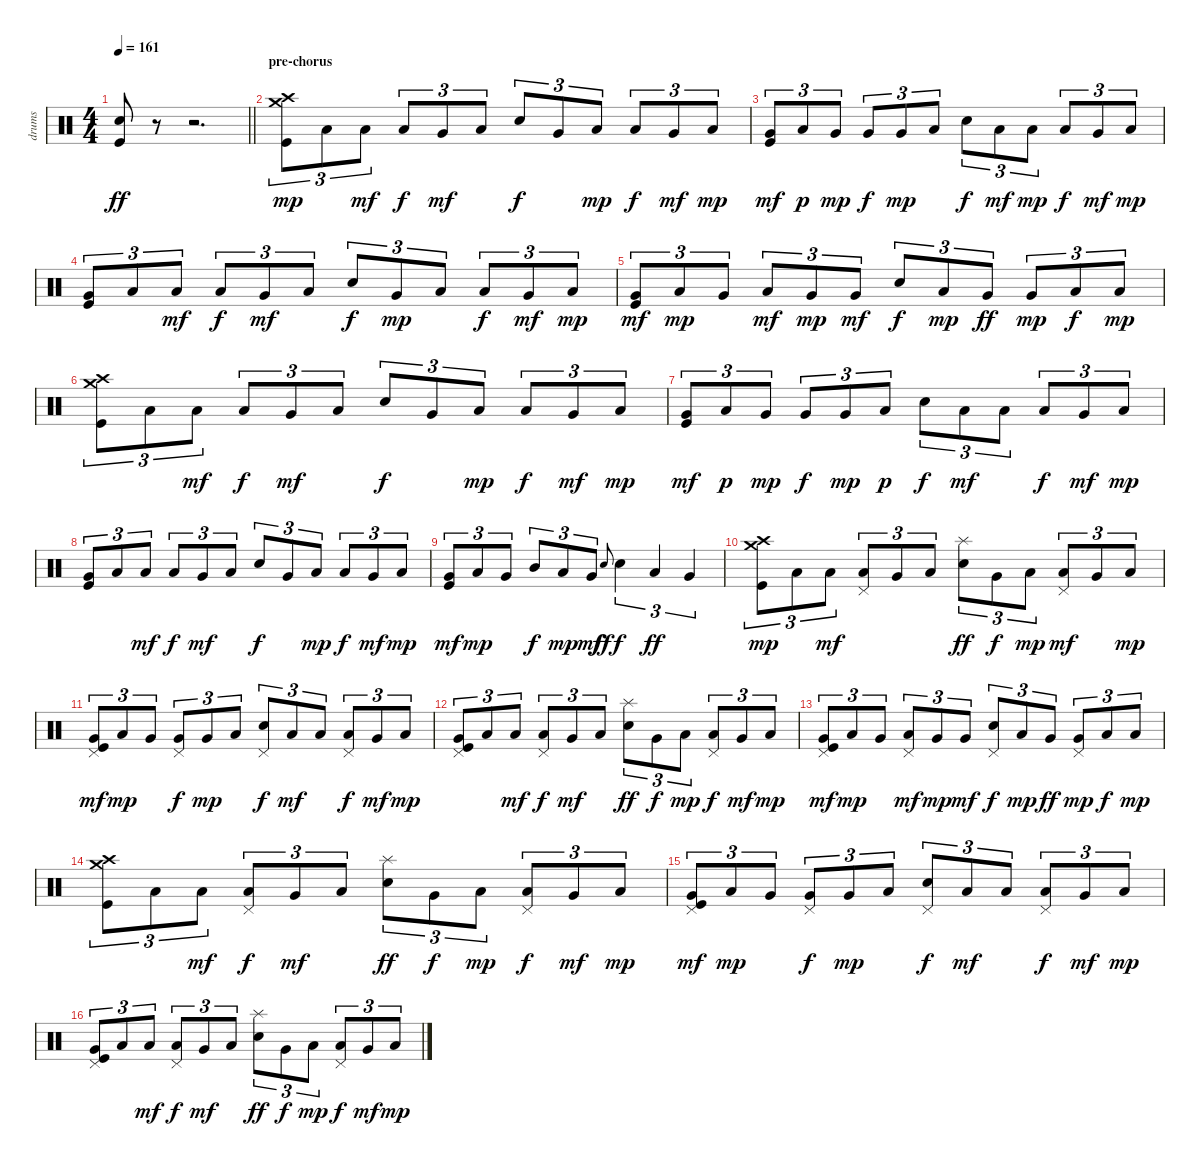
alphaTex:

\track ("drums" "drums") {instrument percussion}
\staff {score}
\articulation defaults
\ts (4 4)
\tempo 161
\clef neutral
\barLineRight lightlight
\ks c
("Electric Snare (hit)" "Kick (hit)").8{dy ff} r.8 r.2{d} |
\section ("" "pre-chorus")
("Crash medium (hit)" "Crash high (hit)" "Kick (hit)").8{tu (3 2) dy mp} "Low Tom (hit)".8{tu (3 2)} "Low Tom (hit)".8{tu (3 2) dy mf} "Low Tom (hit)".8{tu (3 2) dy f} "Very Low Tom (hit)".8{tu (3 2) dy mf} "Low Floor Tom (hit)".8{tu (3 2)} "Electric Snare (hit)".8{tu (3 2) dy f} "Very Low Tom (hit)".8{tu (3 2)} "Low Tom (hit)".8{tu (3 2) dy mp} "Low Tom (hit)".8{tu (3 2) dy f} "Very Low Tom (hit)".8{tu (3 2) dy mf} "Low Floor Tom (hit)".8{tu (3 2) dy mp} |
("Very Low Tom (hit)" "Kick (hit)").8{tu (3 2) dy mf} "Low Tom (hit)".8{tu (3 2) dy p} "Very Low Tom (hit)".8{tu (3 2) dy mp} "Very Low Tom (hit)".8{tu (3 2) dy f} "Very Low Tom (hit)".8{tu (3 2) dy mp} "Low Floor Tom (hit)".8{tu (3 2)} "Electric Snare (hit)".8{tu (3 2) dy f} "Low Floor Tom (hit)".8{tu (3 2) dy mf} "Low Tom (hit)".8{tu (3 2) dy mp} "Low Tom (hit)".8{tu (3 2) dy f} "Very Low Tom (hit)".8{tu (3 2) dy mf} "Low Floor Tom (hit)".8{tu (3 2) dy mp} |
("Very Low Tom (hit)" "Kick (hit)").8{tu (3 2)} "Low Tom (hit)".8{tu (3 2)} "Low Tom (hit)".8{tu (3 2) dy mf} "Low Tom (hit)".8{tu (3 2) dy f} "Very Low Tom (hit)".8{tu (3 2) dy mf} "Low Floor Tom (hit)".8{tu (3 2)} "Electric Snare (hit)".8{tu (3 2) dy f} "Very Low Tom (hit)".8{tu (3 2) dy mp} "Low Tom (hit)".8{tu (3 2)} "Low Tom (hit)".8{tu (3 2) dy f} "Very Low Tom (hit)".8{tu (3 2) dy mf} "Low Floor Tom (hit)".8{tu (3 2) dy mp} |
("Very Low Tom (hit)" "Kick (hit)").8{tu (3 2) dy mf} "Low Tom (hit)".8{tu (3 2) dy mp} "Very Low Tom (hit)".8{tu (3 2)} "Low Tom (hit)".8{tu (3 2) dy mf} "Very Low Tom (hit)".8{tu (3 2) dy mp} "Very Low Tom (hit)".8{tu (3 2) dy mf} "Electric Snare (hit)".8{tu (3 2) dy f} "Low Tom (hit)".8{tu (3 2) dy mp} "Very Low Tom (hit)".8{tu (3 2) dy ff} "Very Low Tom (hit)".8{tu (3 2) dy mp} "Low Floor Tom (hit)".8{tu (3 2) dy f} "Low Floor Tom (hit)".8{tu (3 2) dy mp} |
("Crash high (hit)" "Crash medium (hit)" "Kick (hit)").8{tu (3 2)} "Low Tom (hit)".8{tu (3 2)} "Low Tom (hit)".8{tu (3 2) dy mf} "Low Tom (hit)".8{tu (3 2) dy f} "Very Low Tom (hit)".8{tu (3 2) dy mf} "Low Floor Tom (hit)".8{tu (3 2)} "Electric Snare (hit)".8{tu (3 2) dy f} "Very Low Tom (hit)".8{tu (3 2)} "Low Tom (hit)".8{tu (3 2) dy mp} "Low Tom (hit)".8{tu (3 2) dy f} "Very Low Tom (hit)".8{tu (3 2) dy mf} "Low Floor Tom (hit)".8{tu (3 2) dy mp} |
("Very Low Tom (hit)" "Kick (hit)").8{tu (3 2) dy mf} "Low Tom (hit)".8{tu (3 2) dy p} "Very Low Tom (hit)".8{tu (3 2) dy mp} "Very Low Tom (hit)".8{tu (3 2) dy f} "Very Low Tom (hit)".8{tu (3 2) dy mp} "Low Floor Tom (hit)".8{tu (3 2) dy p} "Electric Snare (hit)".8{tu (3 2) dy f} "Low Floor Tom (hit)".8{tu (3 2) dy mf} "Low Tom (hit)".8{tu (3 2)} "Low Tom (hit)".8{tu (3 2) dy f} "Very Low Tom (hit)".8{tu (3 2) dy mf} "Low Floor Tom (hit)".8{tu (3 2) dy mp} |
("Very Low Tom (hit)" "Kick (hit)").8{tu (3 2)} "Low Tom (hit)".8{tu (3 2)} "Low Tom (hit)".8{tu (3 2) dy mf} "Low Tom (hit)".8{tu (3 2) dy f} "Very Low Tom (hit)".8{tu (3 2) dy mf} "Low Floor Tom (hit)".8{tu (3 2)} "Electric Snare (hit)".8{tu (3 2) dy f} "Very Low Tom (hit)".8{tu (3 2)} "Low Tom (hit)".8{tu (3 2) dy mp} "Low Tom (hit)".8{tu (3 2) dy f} "Very Low Tom (hit)".8{tu (3 2) dy mf} "Low Floor Tom (hit)".8{tu (3 2) dy mp} |
("Very Low Tom (hit)" "Kick (hit)").8{tu (3 2) dy mf} "Low Tom (hit)".8{tu (3 2) dy mp} "Very Low Tom (hit)".8{tu (3 2)} "Mid Tom (hit)".8{tu (3 2) dy f} "Low Tom (hit)".8{tu (3 2) dy mp} "Very Low Tom (hit)".8{tu (3 2) dy mf} "Electric Snare (hit)".8{gr onbeat dy ff} "Electric Snare (hit)".4{tu (3 2) dy f} "Low Tom (hit)".4{tu (3 2) dy ff} "Very Low Tom (hit)".4{tu (3 2)} |
("Crash medium (hit)" "Crash high (hit)" "Kick (hit)").8{tu (3 2) dy mp} "Low Tom (hit)".8{tu (3 2)} "Low Tom (hit)".8{tu (3 2) dy mf} ("Pedal Hi-Hat (hit)" "Low Tom (hit)").8{tu (3 2)} "Very Low Tom (hit)".8{tu (3 2)} "Low Floor Tom (hit)".8{tu (3 2)} ("Splash (hit)" "Electric Snare (hit)").8{tu (3 2) dy ff} "Very Low Tom (hit)".8{tu (3 2) dy f} "Low Tom (hit)".8{tu (3 2) dy mp} ("Pedal Hi-Hat (hit)" "Low Tom (hit)").8{tu (3 2) dy mf} "Very Low Tom (hit)".8{tu (3 2)} "Low Floor Tom (hit)".8{tu (3 2) dy mp} |
("Pedal Hi-Hat (hit)" "Very Low Tom (hit)" "Kick (hit)").8{tu (3 2) dy mf} "Low Tom (hit)".8{tu (3 2) dy mp} "Very Low Tom (hit)".8{tu (3 2)} ("Pedal Hi-Hat (hit)" "Very Low Tom (hit)").8{tu (3 2) dy f} "Very Low Tom (hit)".8{tu (3 2) dy mp} "Low Floor Tom (hit)".8{tu (3 2)} ("Pedal Hi-Hat (hit)" "Electric Snare (hit)").8{tu (3 2) dy f} "Low Floor Tom (hit)".8{tu (3 2) dy mf} "Low Tom (hit)".8{tu (3 2)} ("Pedal Hi-Hat (hit)" "Low Tom (hit)").8{tu (3 2) dy f} "Very Low Tom (hit)".8{tu (3 2) dy mf} "Low Floor Tom (hit)".8{tu (3 2) dy mp} |
("Pedal Hi-Hat (hit)" "Very Low Tom (hit)" "Kick (hit)").8{tu (3 2)} "Low Tom (hit)".8{tu (3 2)} "Low Tom (hit)".8{tu (3 2) dy mf} ("Pedal Hi-Hat (hit)" "Low Tom (hit)").8{tu (3 2) dy f} "Very Low Tom (hit)".8{tu (3 2) dy mf} "Low Floor Tom (hit)".8{tu (3 2)} ("Splash (hit)" "Electric Snare (hit)").8{tu (3 2) dy ff} "Very Low Tom (hit)".8{tu (3 2) dy f} "Low Tom (hit)".8{tu (3 2) dy mp} ("Pedal Hi-Hat (hit)" "Low Tom (hit)").8{tu (3 2) dy f} "Very Low Tom (hit)".8{tu (3 2) dy mf} "Low Floor Tom (hit)".8{tu (3 2) dy mp} |
("Pedal Hi-Hat (hit)" "Very Low Tom (hit)" "Kick (hit)").8{tu (3 2) dy mf} "Low Tom (hit)".8{tu (3 2) dy mp} "Very Low Tom (hit)".8{tu (3 2)} ("Pedal Hi-Hat (hit)" "Low Tom (hit)").8{tu (3 2) dy mf} "Very Low Tom (hit)".8{tu (3 2) dy mp} "Very Low Tom (hit)".8{tu (3 2) dy mf} ("Pedal Hi-Hat (hit)" "Electric Snare (hit)").8{tu (3 2) dy f} "Low Tom (hit)".8{tu (3 2) dy mp} "Very Low Tom (hit)".8{tu (3 2) dy ff} ("Pedal Hi-Hat (hit)" "Very Low Tom (hit)").8{tu (3 2) dy mp} "Low Floor Tom (hit)".8{tu (3 2) dy f} "Low Floor Tom (hit)".8{tu (3 2) dy mp} |
("Crash high (hit)" "Crash medium (hit)" "Kick (hit)").8{tu (3 2)} "Low Tom (hit)".8{tu (3 2)} "Low Tom (hit)".8{tu (3 2) dy mf} ("Pedal Hi-Hat (hit)" "Low Tom (hit)").8{tu (3 2) dy f} "Very Low Tom (hit)".8{tu (3 2) dy mf} "Low Floor Tom (hit)".8{tu (3 2)} ("Splash (hit)" "Electric Snare (hit)").8{tu (3 2) dy ff} "Very Low Tom (hit)".8{tu (3 2) dy f} "Low Tom (hit)".8{tu (3 2) dy mp} ("Pedal Hi-Hat (hit)" "Low Tom (hit)").8{tu (3 2) dy f} "Very Low Tom (hit)".8{tu (3 2) dy mf} "Low Floor Tom (hit)".8{tu (3 2) dy mp} |
("Pedal Hi-Hat (hit)" "Very Low Tom (hit)" "Kick (hit)").8{tu (3 2) dy mf} "Low Tom (hit)".8{tu (3 2) dy mp} "Very Low Tom (hit)".8{tu (3 2)} ("Pedal Hi-Hat (hit)" "Very Low Tom (hit)").8{tu (3 2) dy f} "Very Low Tom (hit)".8{tu (3 2) dy mp} "Low Floor Tom (hit)".8{tu (3 2)} ("Pedal Hi-Hat (hit)" "Electric Snare (hit)").8{tu (3 2) dy f} "Low Floor Tom (hit)".8{tu (3 2) dy mf} "Low Tom (hit)".8{tu (3 2)} ("Pedal Hi-Hat (hit)" "Low Tom (hit)").8{tu (3 2) dy f} "Very Low Tom (hit)".8{tu (3 2) dy mf} "Low Floor Tom (hit)".8{tu (3 2) dy mp} |
("Pedal Hi-Hat (hit)" "Very Low Tom (hit)" "Kick (hit)").8{tu (3 2)} "Low Tom (hit)".8{tu (3 2)} "Low Tom (hit)".8{tu (3 2) dy mf} ("Pedal Hi-Hat (hit)" "Low Tom (hit)").8{tu (3 2) dy f} "Very Low Tom (hit)".8{tu (3 2) dy mf} "Low Floor Tom (hit)".8{tu (3 2)} ("Splash (hit)" "Electric Snare (hit)").8{tu (3 2) dy ff} "Very Low Tom (hit)".8{tu (3 2) dy f} "Low Tom (hit)".8{tu (3 2) dy mp} ("Pedal Hi-Hat (hit)" "Low Tom (hit)").8{tu (3 2) dy f} "Very Low Tom (hit)".8{tu (3 2) dy mf} "Low Floor Tom (hit)".8{tu (3 2) dy mp}
